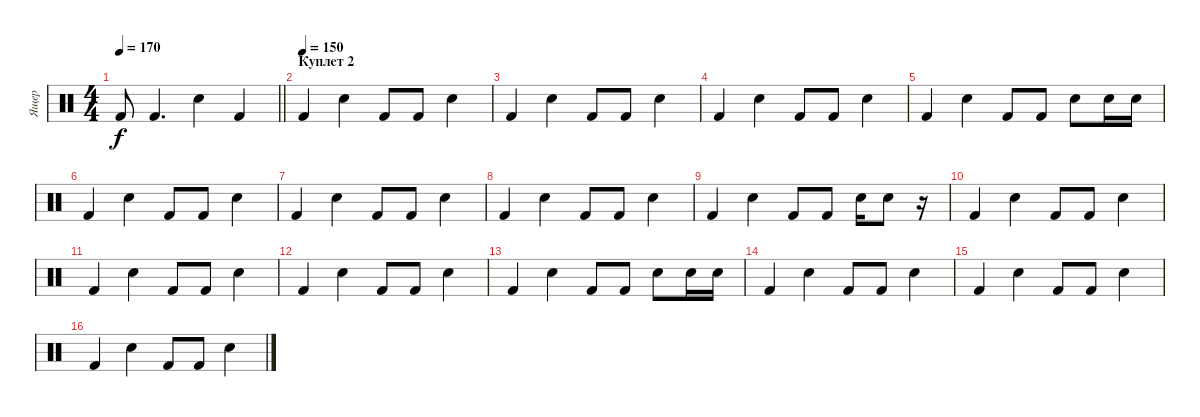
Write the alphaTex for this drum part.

\track ("Ящер" "Ящер") {instrument percussion}
\staff {score}
\articulation defaults
\ts (4 4)
\tempo 170
\clef neutral
\barLineRight lightlight
\ks c "Kick (hit) 2".8{dy f} "Kick (hit) 2".4{d} "Snare (hit) 2".4 "Kick (hit) 2".4
|
\section ("" "Куплет 2")
\tempo (150)
"Kick (hit) 2".4 "Snare (hit) 2".4 "Kick (hit) 2".8 "Kick (hit) 2".8 "Snare (hit) 2".4 |
"Kick (hit) 2".4 "Snare (hit) 2".4 "Kick (hit) 2".8 "Kick (hit) 2".8 "Snare (hit) 2".4 |
"Kick (hit) 2".4 "Snare (hit) 2".4 "Kick (hit) 2".8 "Kick (hit) 2".8 "Snare (hit) 2".4 |
"Kick (hit) 2".4 "Snare (hit) 2".4 "Kick (hit) 2".8 "Kick (hit) 2".8 "Snare (hit) 2".8 "Snare (hit) 2".16 "Snare (hit) 2".16 |
"Kick (hit) 2".4 "Snare (hit) 2".4 "Kick (hit) 2".8 "Kick (hit) 2".8 "Snare (hit) 2".4 |
"Kick (hit) 2".4 "Snare (hit) 2".4 "Kick (hit) 2".8 "Kick (hit) 2".8 "Snare (hit) 2".4 |
"Kick (hit) 2".4 "Snare (hit) 2".4 "Kick (hit) 2".8 "Kick (hit) 2".8 "Snare (hit) 2".4 |
"Kick (hit) 2".4 "Snare (hit) 2".4 "Kick (hit) 2".8 "Kick (hit) 2".8 "Snare (hit) 2".16 "Snare (hit) 2".8 r.16 |
"Kick (hit) 2".4 "Snare (hit) 2".4 "Kick (hit) 2".8 "Kick (hit) 2".8 "Snare (hit) 2".4 |
"Kick (hit) 2".4 "Snare (hit) 2".4 "Kick (hit) 2".8 "Kick (hit) 2".8 "Snare (hit) 2".4 |
"Kick (hit) 2".4 "Snare (hit) 2".4 "Kick (hit) 2".8 "Kick (hit) 2".8 "Snare (hit) 2".4 |
"Kick (hit) 2".4 "Snare (hit) 2".4 "Kick (hit) 2".8 "Kick (hit) 2".8 "Snare (hit) 2".8 "Snare (hit) 2".16 "Snare (hit) 2".16 |
"Kick (hit) 2".4 "Snare (hit) 2".4 "Kick (hit) 2".8 "Kick (hit) 2".8 "Snare (hit) 2".4 |
"Kick (hit) 2".4 "Snare (hit) 2".4 "Kick (hit) 2".8 "Kick (hit) 2".8 "Snare (hit) 2".4 |
"Kick (hit) 2".4 "Snare (hit) 2".4 "Kick (hit) 2".8 "Kick (hit) 2".8 "Snare (hit) 2".4
